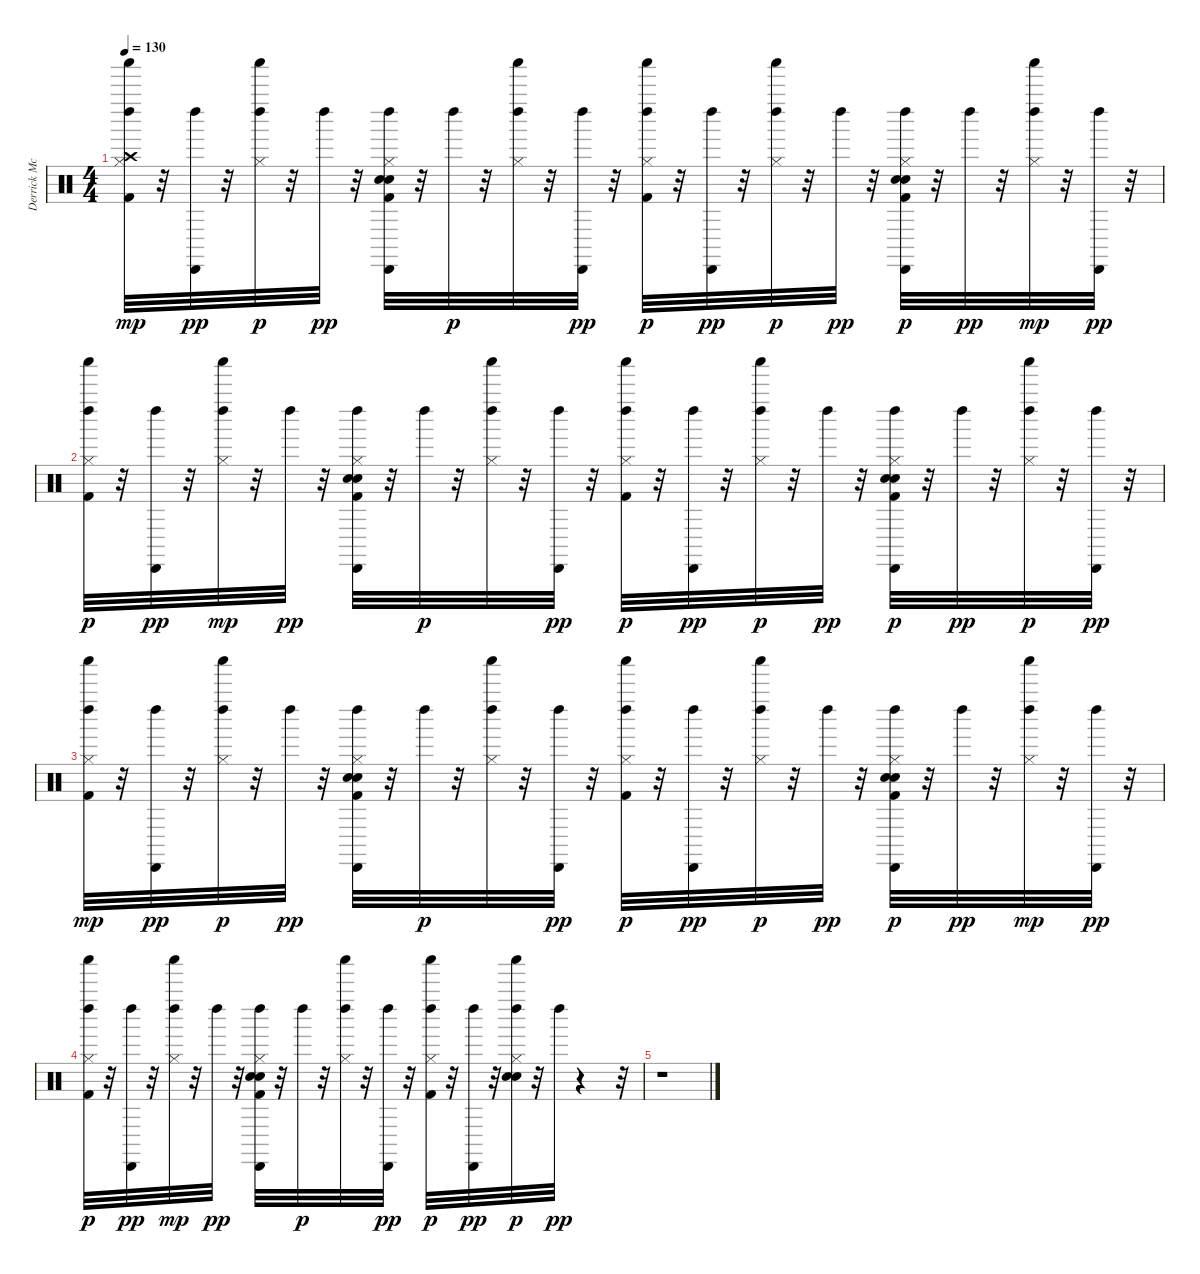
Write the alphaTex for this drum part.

\track ("Derrick McKenzie\\Sola Akingbola - Drums" "Derrick Mc") {instrument percussion}
\staff {score}
\articulation defaults
\ts (4 4)
\tempo 130
\clef neutral
\ks c
("Kick (hit) 2" "Hi-Hat (closed)" "Crash high (hit)" "Left Maraca (hit)" "Shaker (hit)").32{dy mp} r.32 ("Cabasa (hit)" "Left Maraca (hit)").32{dy pp} r.32 ("Hi-Hat (closed)" "Left Maraca (hit)" "Shaker (hit)").32{dy p} r.32 "Left Maraca (hit)".32{dy pp} r.32 ("Kick (hit) 2" "Hand Clap (hit)" "Electric Snare (hit)" "Hi-Hat (closed)" "Cabasa (hit)" "Left Maraca (hit)").32 r.32 "Left Maraca (hit)".32{dy p} r.32 ("Hi-Hat (closed)" "Left Maraca (hit)" "Shaker (hit)").32 r.32 ("Cabasa (hit)" "Left Maraca (hit)").32{dy pp} r.32 ("Kick (hit) 2" "Hi-Hat (closed)" "Left Maraca (hit)" "Shaker (hit)").32{dy p} r.32 ("Cabasa (hit)" "Left Maraca (hit)").32{dy pp} r.32 ("Hi-Hat (closed)" "Left Maraca (hit)" "Shaker (hit)").32{dy p} r.32 "Left Maraca (hit)".32{dy pp} r.32 ("Kick (hit) 2" "Hand Clap (hit)" "Electric Snare (hit)" "Hi-Hat (closed)" "Cabasa (hit)" "Left Maraca (hit)").32{dy p} r.32 "Left Maraca (hit)".32{dy pp} r.32 ("Hi-Hat (closed)" "Left Maraca (hit)" "Shaker (hit)").32{dy mp} r.32 ("Cabasa (hit)" "Left Maraca (hit)").32{dy pp} r.32 |
("Kick (hit) 2" "Hi-Hat (closed)" "Left Maraca (hit)" "Shaker (hit)").32{dy p} r.32 ("Cabasa (hit)" "Left Maraca (hit)").32{dy pp} r.32 ("Hi-Hat (closed)" "Left Maraca (hit)" "Shaker (hit)").32{dy mp} r.32 "Left Maraca (hit)".32{dy pp} r.32 ("Kick (hit) 2" "Hand Clap (hit)" "Electric Snare (hit)" "Hi-Hat (closed)" "Cabasa (hit)" "Left Maraca (hit)").32 r.32 "Left Maraca (hit)".32{dy p} r.32 ("Hi-Hat (closed)" "Left Maraca (hit)" "Shaker (hit)").32 r.32 ("Cabasa (hit)" "Left Maraca (hit)").32{dy pp} r.32 ("Kick (hit) 2" "Hi-Hat (closed)" "Left Maraca (hit)" "Shaker (hit)").32{dy p} r.32 ("Cabasa (hit)" "Left Maraca (hit)").32{dy pp} r.32 ("Hi-Hat (closed)" "Left Maraca (hit)" "Shaker (hit)").32{dy p} r.32 "Left Maraca (hit)".32{dy pp} r.32 ("Kick (hit) 2" "Hand Clap (hit)" "Electric Snare (hit)" "Hi-Hat (closed)" "Cabasa (hit)" "Left Maraca (hit)").32{dy p} r.32 "Left Maraca (hit)".32{dy pp} r.32 ("Hi-Hat (closed)" "Left Maraca (hit)" "Shaker (hit)").32{dy p} r.32 ("Cabasa (hit)" "Left Maraca (hit)").32{dy pp} r.32 |
("Kick (hit) 2" "Hi-Hat (closed)" "Left Maraca (hit)" "Shaker (hit)").32{dy mp} r.32 ("Cabasa (hit)" "Left Maraca (hit)").32{dy pp} r.32 ("Hi-Hat (closed)" "Left Maraca (hit)" "Shaker (hit)").32{dy p} r.32 "Left Maraca (hit)".32{dy pp} r.32 ("Kick (hit) 2" "Hand Clap (hit)" "Electric Snare (hit)" "Hi-Hat (closed)" "Cabasa (hit)" "Left Maraca (hit)").32 r.32 "Left Maraca (hit)".32{dy p} r.32 ("Hi-Hat (closed)" "Left Maraca (hit)" "Shaker (hit)").32 r.32 ("Cabasa (hit)" "Left Maraca (hit)").32{dy pp} r.32 ("Kick (hit) 2" "Hi-Hat (closed)" "Left Maraca (hit)" "Shaker (hit)").32{dy p} r.32 ("Cabasa (hit)" "Left Maraca (hit)").32{dy pp} r.32 ("Hi-Hat (closed)" "Left Maraca (hit)" "Shaker (hit)").32{dy p} r.32 "Left Maraca (hit)".32{dy pp} r.32 ("Kick (hit) 2" "Hand Clap (hit)" "Electric Snare (hit)" "Hi-Hat (closed)" "Cabasa (hit)" "Left Maraca (hit)").32{dy p} r.32 "Left Maraca (hit)".32{dy pp} r.32 ("Hi-Hat (closed)" "Left Maraca (hit)" "Shaker (hit)").32{dy mp} r.32 ("Cabasa (hit)" "Left Maraca (hit)").32{dy pp} r.32 |
("Kick (hit) 2" "Hi-Hat (closed)" "Left Maraca (hit)" "Shaker (hit)").32{dy p} r.32 ("Cabasa (hit)" "Left Maraca (hit)").32{dy pp} r.32 ("Hi-Hat (closed)" "Left Maraca (hit)" "Shaker (hit)").32{dy mp} r.32 "Left Maraca (hit)".32{dy pp} r.32 ("Kick (hit) 2" "Hand Clap (hit)" "Electric Snare (hit)" "Hi-Hat (closed)" "Cabasa (hit)" "Left Maraca (hit)").32 r.32 "Left Maraca (hit)".32{dy p} r.32 ("Hi-Hat (closed)" "Left Maraca (hit)" "Shaker (hit)").32 r.32 ("Cabasa (hit)" "Left Maraca (hit)").32{dy pp} r.32 ("Kick (hit) 2" "Hi-Hat (closed)" "Left Maraca (hit)" "Shaker (hit)").32{dy p} r.32 ("Cabasa (hit)" "Left Maraca (hit)").32{dy pp} r.32 ("Hand Clap (hit)" "Electric Snare (hit)" "Hi-Hat (closed)" "Left Maraca (hit)" "Shaker (hit)").32{dy p} r.32 "Left Maraca (hit)".32{dy pp} r.4 r.32 |
r.1
